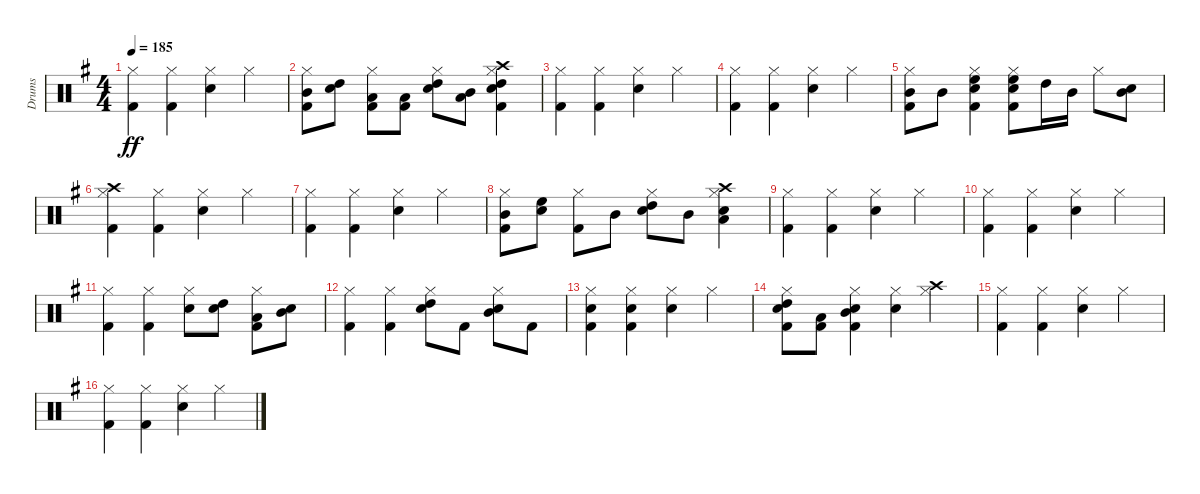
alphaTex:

\track ("Drums" "Drums") {instrument percussion}
\staff {score}
\articulation defaults
\ts (4 4)
\tempo 185
\clef neutral
\ks g
("Hi-Hat (closed)" "Kick (hit) 2").4{dy ff} ("Hi-Hat (closed)" "Kick (hit) 2").4 ("Hi-Hat (closed)" "Electric Snare (hit)").4 "Hi-Hat (closed)".4 |
("Mid Tom (hit)" "Hi-Hat (closed)" "Kick (hit) 2").8 ("Electric Snare (hit)" "High Tom (hit)").8 ("Low Tom (hit)" "Hi-Hat (closed)" "Kick (hit) 2").8 ("Kick (hit) 2" "Low Tom (hit)").8 ("High Tom (hit)" "Electric Snare (hit)" "Hi-Hat (closed)").8 ("Low Tom (hit)" "Mid Tom (hit)").8 ("Electric Snare (hit)" "Kick (hit) 2" "Crash high (hit)" "High Tom (hit)" "Hi-Hat (closed)").4 |
("Kick (hit) 2" "Hi-Hat (closed)").4 ("Kick (hit) 2" "Hi-Hat (closed)").4 ("Electric Snare (hit)" "Hi-Hat (closed)").4 "Hi-Hat (closed)".4 |
("Hi-Hat (closed)" "Kick (hit) 2").4 ("Hi-Hat (closed)" "Kick (hit) 2").4 ("Hi-Hat (closed)" "Electric Snare (hit)").4 "Hi-Hat (closed)".4 |
("Mid Tom (hit)" "Hi-Hat (closed)" "Kick (hit) 2").8 "Mid Tom (hit)".8 ("High Floor Tom (hit)" "Electric Snare (hit)" "Hi-Hat (closed)" "Kick (hit) 2").4 ("Kick (hit) 2" "High Floor Tom (hit)" "Hi-Hat (closed)" "Electric Snare (hit)").8 "High Tom (hit)".16 "Mid Tom (hit)".16 "Hi-Hat (closed)".8 ("Electric Snare (hit)" "Mid Tom (hit)").8 |
("Crash high (hit)" "Hi-Hat (closed)" "Kick (hit) 2").4 ("Hi-Hat (closed)" "Kick (hit) 2").4 ("Electric Snare (hit)" "Hi-Hat (closed)").4 "Hi-Hat (closed)".4 |
("Kick (hit) 2" "Hi-Hat (closed)").4 ("Kick (hit) 2" "Hi-Hat (closed)").4 ("Electric Snare (hit)" "Hi-Hat (closed)").4 "Hi-Hat (closed)".4 |
("Mid Tom (hit)" "Hi-Hat (closed)" "Kick (hit) 2").8 ("High Floor Tom (hit)" "Electric Snare (hit)").8 ("Hi-Hat (closed)" "Kick (hit) 2").8 "Mid Tom (hit)".8 ("High Tom (hit)" "Hi-Hat (closed)" "Electric Snare (hit)").8 "Mid Tom (hit)".8 ("Crash high (hit)" "Electric Snare (hit)" "Low Tom (hit)" "Hi-Hat (closed)").4 |
("Hi-Hat (closed)" "Kick (hit) 2").4 ("Hi-Hat (closed)" "Kick (hit) 2").4 ("Hi-Hat (closed)" "Electric Snare (hit)").4 "Hi-Hat (closed)".4 |
("Hi-Hat (closed)" "Kick (hit) 2").4 ("Hi-Hat (closed)" "Kick (hit) 2").4 ("Electric Snare (hit)" "Hi-Hat (closed)").4 "Hi-Hat (closed)".4 |
("Kick (hit) 2" "Hi-Hat (closed)").4 ("Kick (hit) 2" "Hi-Hat (closed)").4 ("Electric Snare (hit)" "Hi-Hat (closed)").8 ("Electric Snare (hit)" "High Tom (hit)").8 ("Kick (hit) 2" "Low Tom (hit)" "Hi-Hat (closed)").8 ("Mid Tom (hit)" "Electric Snare (hit)").8 |
("Hi-Hat (closed)" "Kick (hit) 2").4 ("Hi-Hat (closed)" "Kick (hit) 2").4 ("High Tom (hit)" "Hi-Hat (closed)" "Electric Snare (hit)").8 "Kick (hit) 2".8 ("Mid Tom (hit)" "Electric Snare (hit)" "Hi-Hat (closed)").8 "Kick (hit) 2".8 |
("Electric Snare (hit)" "Hi-Hat (closed)" "Kick (hit) 2").4 ("Electric Snare (hit)" "Hi-Hat (closed)" "Kick (hit) 2").4 ("Hi-Hat (closed)" "Electric Snare (hit)").4 "Hi-Hat (closed)".4 |
("High Tom (hit)" "Electric Snare (hit)" "Hi-Hat (closed)" "Kick (hit) 2").8 ("Low Tom (hit)" "Kick (hit) 2").8 ("Mid Tom (hit)" "Electric Snare (hit)" "Hi-Hat (closed)" "Kick (hit) 2").4 ("Electric Snare (hit)" "Hi-Hat (closed)").4 ("Crash high (hit)" "Hi-Hat (closed)").4 |
("Kick (hit) 2" "Hi-Hat (closed)").4 ("Kick (hit) 2" "Hi-Hat (closed)").4 ("Electric Snare (hit)" "Hi-Hat (closed)").4 "Hi-Hat (closed)".4 |
("Hi-Hat (closed)" "Kick (hit) 2").4 ("Hi-Hat (closed)" "Kick (hit) 2").4 ("Hi-Hat (closed)" "Electric Snare (hit)").4 "Hi-Hat (closed)".4
